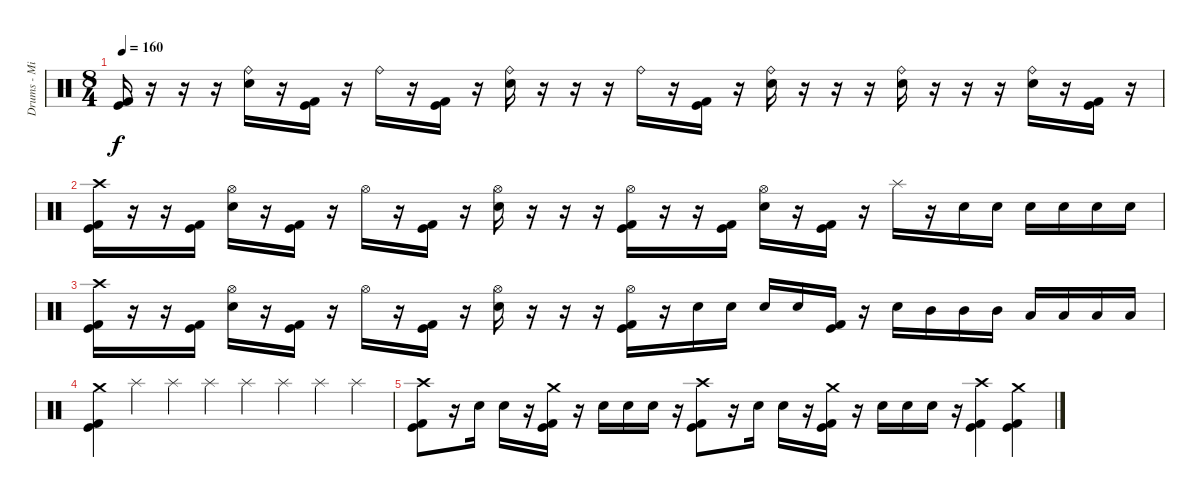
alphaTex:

\track ("Drums - Mikkey Dee" "Drums - Mi") {instrument percussion}
\staff {score}
\articulation defaults
\ts (8 4)
\tempo 160
\clef neutral
\ks c
("Kick (hit) 2" "Kick (hit)").16{dy f} r.16 r.16 r.16 ("Ride (bell)" "Electric Snare (hit)").16 r.16 ("Kick (hit) 2" "Kick (hit)").16 r.16 "Ride (bell)".16 r.16 ("Kick (hit) 2" "Kick (hit)").16 r.16 ("Ride (bell)" "Electric Snare (hit)").16 r.16 r.16 r.16 "Ride (bell)".16 r.16 ("Kick (hit) 2" "Kick (hit)").16 r.16 ("Ride (bell)" "Electric Snare (hit)").16 r.16 r.16 r.16 ("Ride (bell)" "Electric Snare (hit)").16 r.16 r.16 r.16 ("Ride (bell)" "Electric Snare (hit)").16 r.16 ("Kick (hit) 2" "Kick (hit)").16 r.16 |
("Crash high (hit)" "Kick (hit) 2" "Kick (hit)").16 r.16 r.16 ("Kick (hit) 2" "Kick (hit)").16 ("Hi-Hat (open)" "Electric Snare (hit)").16 r.16 ("Kick (hit) 2" "Kick (hit)").16 r.16 "Hi-Hat (open)".16 r.16 ("Kick (hit) 2" "Kick (hit)").16 r.16 ("Hi-Hat (open)" "Electric Snare (hit)").16 r.16 r.16 r.16 ("Hi-Hat (open)" "Kick (hit) 2" "Kick (hit)").16 r.16 r.16 ("Kick (hit) 2" "Kick (hit)").16 ("Hi-Hat (open)" "Electric Snare (hit)").16 r.16 ("Kick (hit) 2" "Kick (hit)").16 r.16 "Splash (hit)".16 r.16 "Electric Snare (hit)".16 "Electric Snare (hit)".16 "Electric Snare (hit)".16 "Electric Snare (hit)".16 "Electric Snare (hit)".16 "Electric Snare (hit)".16 |
("Crash high (hit)" "Kick (hit) 2" "Kick (hit)").16 r.16 r.16 ("Kick (hit) 2" "Kick (hit)").16 ("Hi-Hat (open)" "Electric Snare (hit)").16 r.16 ("Kick (hit) 2" "Kick (hit)").16 r.16 "Hi-Hat (open)".16 r.16 ("Kick (hit) 2" "Kick (hit)").16 r.16 ("Hi-Hat (open)" "Electric Snare (hit)").16 r.16 r.16 r.16 ("Hi-Hat (open)" "Kick (hit) 2" "Kick (hit)").16 r.16 "Electric Snare (hit)".16 "Electric Snare (hit)".16 "Electric Snare (hit)".16 "Electric Snare (hit)".16 ("Kick (hit) 2" "Kick (hit)").16 r.16 "Electric Snare (hit)".16 "Mid Tom (hit)".16 "Mid Tom (hit)".16 "Mid Tom (hit)".16 "Low Tom (hit)".16 "Low Tom (hit)".16 "Low Tom (hit)".16 "Low Tom (hit)".16 |
("Crash medium (hit)" "Kick (hit) 2" "Kick (hit)").4 "Splash (hit)".4 "Splash (hit)".4 "Splash (hit)".4 "Splash (hit)".4 "Splash (hit)".4 "Splash (hit)".4 "Splash (hit)".4 |
("Crash high (hit)" "Kick (hit) 2" "Kick (hit)").8 r.16 "Electric Snare (hit)".16 "Electric Snare (hit)".16 r.16 ("Crash medium (hit)" "Kick (hit) 2" "Kick (hit)").16 r.16 "Electric Snare (hit)".16 "Electric Snare (hit)".16 "Electric Snare (hit)".16 r.16 ("Crash high (hit)" "Kick (hit) 2" "Kick (hit)").8 r.16 "Electric Snare (hit)".16 "Electric Snare (hit)".16 r.16 ("Crash medium (hit)" "Kick (hit) 2" "Kick (hit)").16 r.16 "Electric Snare (hit)".16 "Electric Snare (hit)".16 "Electric Snare (hit)".16 r.16 ("Crash high (hit)" "Kick (hit) 2" "Kick (hit)").4 ("Crash medium (hit)" "Kick (hit) 2" "Kick (hit)").4
